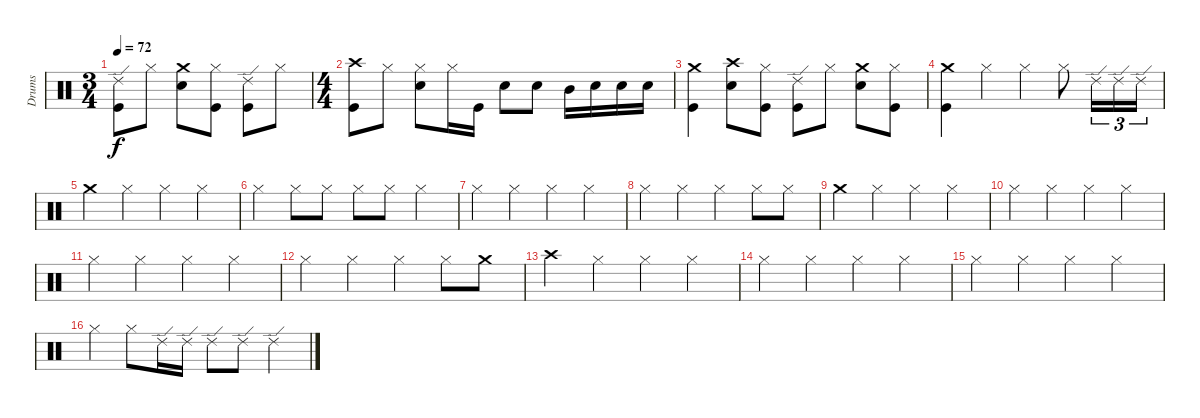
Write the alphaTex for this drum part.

\track ("Drums" "Drums") {instrument percussion}
\staff {score}
\articulation defaults
\ts (3 4)
\tempo 72
\clef neutral
\ks c
("Kick (hit)" "Ride (edge) 2").8{dy f} "Hi-Hat (closed)".8 ("Electric Snare (hit)" "Crash medium (hit)").8 ("Kick (hit)" "Hi-Hat (closed)").8 ("Kick (hit)" "Ride (edge) 2").8 "Hi-Hat (closed)".8 |
\ts (4 4)
("Kick (hit)" "Crash high (hit)").8 "Hi-Hat (closed)".8 ("Electric Snare (hit)" "Hi-Hat (closed)").8 "Hi-Hat (closed)".16 "Kick (hit)".16 "Electric Snare (hit)".8 "Electric Snare (hit)".8 "Mid Tom (hit)".16 "Electric Snare (hit)".16 "Electric Snare (hit)".16 "Electric Snare (hit)".16 |
("Kick (hit)" "Crash medium (hit)").4 ("Electric Snare (hit)" "Crash high (hit)").8 ("Kick (hit)" "Hi-Hat (closed)").8 ("Kick (hit)" "Ride (edge) 2").8 "Hi-Hat (closed)".8 ("Electric Snare (hit)" "Crash medium (hit)").8 ("Kick (hit)" "Hi-Hat (closed)").8 |
("Kick (hit)" "Crash medium (hit)").4 "Hi-Hat (closed)".4 "Hi-Hat (closed)".4 "Hi-Hat (closed)".8 "Ride (edge) 2".16{tu (3 2)} "Ride (edge) 2".16{tu (3 2)} "Ride (edge) 2".16{tu (3 2)} |
"Crash medium (hit)".4 "Hi-Hat (closed)".4 "Hi-Hat (closed)".4 "Hi-Hat (closed)".4 |
"Hi-Hat (closed)".4 "Hi-Hat (closed)".8 "Hi-Hat (closed)".8 "Hi-Hat (closed)".8 "Hi-Hat (closed)".8 "Hi-Hat (closed)".4 |
"Hi-Hat (closed)".4 "Hi-Hat (closed)".4 "Hi-Hat (closed)".4 "Hi-Hat (closed)".4 |
"Hi-Hat (closed)".4 "Hi-Hat (closed)".4 "Hi-Hat (closed)".4 "Hi-Hat (closed)".8 "Hi-Hat (closed)".8 |
"Crash medium (hit)".4 "Hi-Hat (closed)".4 "Hi-Hat (closed)".4 "Hi-Hat (closed)".4 |
"Hi-Hat (closed)".4 "Hi-Hat (closed)".4 "Hi-Hat (closed)".4 "Hi-Hat (closed)".4 |
"Hi-Hat (closed)".4 "Hi-Hat (closed)".4 "Hi-Hat (closed)".4 "Hi-Hat (closed)".4 |
"Hi-Hat (closed)".4 "Hi-Hat (closed)".4 "Hi-Hat (closed)".4 "Hi-Hat (closed)".8 "Crash medium (hit)".8 |
"Crash high (hit)".4 "Hi-Hat (closed)".4 "Hi-Hat (closed)".4 "Hi-Hat (closed)".4 |
"Hi-Hat (closed)".4 "Hi-Hat (closed)".4 "Hi-Hat (closed)".4 "Hi-Hat (closed)".4 |
"Hi-Hat (closed)".4 "Hi-Hat (closed)".4 "Hi-Hat (closed)".4 "Hi-Hat (closed)".4 |
"Hi-Hat (closed)".4 "Hi-Hat (closed)".8 "Ride (edge) 2".16 "Ride (edge) 2".16 "Ride (edge) 2".8 "Ride (edge) 2".8 "Ride (edge) 2".4
